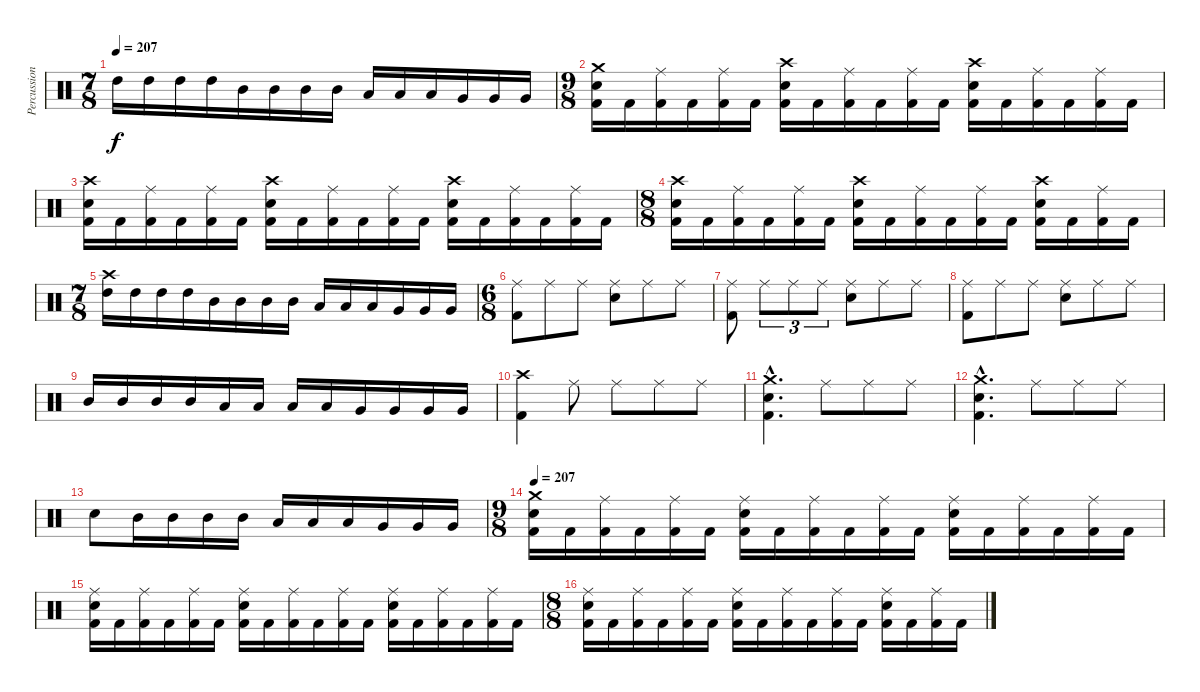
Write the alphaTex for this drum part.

\track ("Percussion" "Percussion") {instrument percussion}
\staff {score}
\articulation defaults
\ts (7 8)
\tempo 207
\clef neutral
\ks c "High Tom (hit)".16{dy f} "High Tom (hit)".16 "High Tom (hit)".16 "High Tom (hit)".16 "Mid Tom (hit)".16 "Mid Tom (hit)".16 "Mid Tom (hit)".16 "Mid Tom (hit)".16 "Low Tom (hit)".16 "Low Tom (hit)".16 "Low Tom (hit)".16 "Very Low Tom (hit)".16 "Very Low Tom (hit)".16 "Very Low Tom (hit)".16
|
\ts (9 8)
("Crash medium (hit)" "Electric Snare (hit)" "Kick (hit) 2").16 "Kick (hit) 2".16 ("Ride (middle)" "Kick (hit) 2").16 "Kick (hit) 2".16 ("Ride (middle)" "Kick (hit) 2").16 "Kick (hit) 2".16 ("Crash high (hit)" "Electric Snare (hit)" "Kick (hit) 2").16 "Kick (hit) 2".16 ("Ride (middle)" "Kick (hit) 2").16 "Kick (hit) 2".16 ("Ride (middle)" "Kick (hit) 2").16 "Kick (hit) 2".16 ("Crash high (hit)" "Electric Snare (hit)" "Kick (hit) 2").16 "Kick (hit) 2".16 ("Ride (middle)" "Kick (hit) 2").16 "Kick (hit) 2".16 ("Ride (middle)" "Kick (hit) 2").16 "Kick (hit) 2".16 |
("Crash high (hit)" "Electric Snare (hit)" "Kick (hit) 2").16 "Kick (hit) 2".16 ("Ride (middle)" "Kick (hit) 2").16 "Kick (hit) 2".16 ("Ride (middle)" "Kick (hit) 2").16 "Kick (hit) 2".16 ("Crash high (hit)" "Electric Snare (hit)" "Kick (hit) 2").16 "Kick (hit) 2".16 ("Ride (middle)" "Kick (hit) 2").16 "Kick (hit) 2".16 ("Ride (middle)" "Kick (hit) 2").16 "Kick (hit) 2".16 ("Crash high (hit)" "Electric Snare (hit)" "Kick (hit) 2").16 "Kick (hit) 2".16 ("Ride (middle)" "Kick (hit) 2").16 "Kick (hit) 2".16 ("Ride (middle)" "Kick (hit) 2").16 "Kick (hit) 2".16 |
\ts (8 8)
("Crash high (hit)" "Electric Snare (hit)" "Kick (hit) 2").16 "Kick (hit) 2".16 ("Ride (middle)" "Kick (hit) 2").16 "Kick (hit) 2".16 ("Ride (middle)" "Kick (hit) 2").16 "Kick (hit) 2".16 ("Crash high (hit)" "Electric Snare (hit)" "Kick (hit) 2").16 "Kick (hit) 2".16 ("Ride (middle)" "Kick (hit) 2").16 "Kick (hit) 2".16 ("Ride (middle)" "Kick (hit) 2").16 "Kick (hit) 2".16 ("Crash high (hit)" "Electric Snare (hit)" "Kick (hit) 2").16 "Kick (hit) 2".16 ("Ride (middle)" "Kick (hit) 2").16 "Kick (hit) 2".16 |
\ts (7 8)
("Crash high (hit)" "High Tom (hit)").16 "High Tom (hit)".16 "High Tom (hit)".16 "High Tom (hit)".16 "Mid Tom (hit)".16 "Mid Tom (hit)".16 "Mid Tom (hit)".16 "Mid Tom (hit)".16 "Low Tom (hit)".16 "Low Tom (hit)".16 "Low Tom (hit)".16 "Very Low Tom (hit)".16 "Very Low Tom (hit)".16 "Very Low Tom (hit)".16 |
\ts (6 8)
("Ride (middle)" "Kick (hit) 2").8 "Ride (middle)".8 "Ride (middle)".8 ("Ride (middle)" "Electric Snare (hit)").8 "Ride (middle)".8 "Ride (middle)".8 |
("Ride (middle)" "Kick (hit) 2").8 "Ride (middle)".8{tu (3 2)} "Ride (middle)".8{tu (3 2)} "Ride (middle)".8{tu (3 2)} ("Ride (middle)" "Electric Snare (hit)").8 "Ride (middle)".8 "Ride (middle)".8 |
("Ride (middle)" "Kick (hit) 2").8 "Ride (middle)".8 "Ride (middle)".8 ("Ride (middle)" "Electric Snare (hit)").8 "Ride (middle)".8 "Ride (middle)".8 |
"Mid Tom (hit)".16 "Mid Tom (hit)".16 "Mid Tom (hit)".16 "Mid Tom (hit)".16 "Low Tom (hit)".16 "Low Tom (hit)".16 "Low Tom (hit)".16 "Low Tom (hit)".16 "Very Low Tom (hit)".16 "Very Low Tom (hit)".16 "Very Low Tom (hit)".16 "Very Low Tom (hit)".16 |
("Crash high (hit)" "Kick (hit) 2").4 "Ride (middle)".8 "Ride (middle)".8 "Ride (middle)".8 "Ride (middle)".8 |
("Crash medium (hit)"{hac} "Electric Snare (hit)"{hac} "Kick (hit) 2"{hac}).4{d} "Ride (middle)".8 "Ride (middle)".8 "Ride (middle)".8 |
("Crash medium (hit)"{hac} "Electric Snare (hit)"{hac} "Kick (hit) 2"{hac}).4{d} "Ride (middle)".8 "Ride (middle)".8 "Ride (middle)".8 |
"Electric Snare (hit)".8 "Mid Tom (hit)".16 "Mid Tom (hit)".16 "Mid Tom (hit)".16 "Mid Tom (hit)".16 "Low Tom (hit)".16 "Low Tom (hit)".16 "Low Tom (hit)".16 "Very Low Tom (hit)".16 "Very Low Tom (hit)".16 "Very Low Tom (hit)".16 |
\ts (9 8)
\tempo 207
("Crash medium (hit)" "Electric Snare (hit)" "Kick (hit) 2").16 "Kick (hit) 2".16 ("Ride (middle)" "Kick (hit) 2").16 "Kick (hit) 2".16 ("Ride (middle)" "Kick (hit) 2").16 "Kick (hit) 2".16 ("Ride (middle)" "Electric Snare (hit)" "Kick (hit) 2").16 "Kick (hit) 2".16 ("Ride (middle)" "Kick (hit) 2").16 "Kick (hit) 2".16 ("Ride (middle)" "Kick (hit) 2").16 "Kick (hit) 2".16 ("Ride (middle)" "Electric Snare (hit)" "Kick (hit) 2").16 "Kick (hit) 2".16 ("Ride (middle)" "Kick (hit) 2").16 "Kick (hit) 2".16 ("Ride (middle)" "Kick (hit) 2").16 "Kick (hit) 2".16 |
("Ride (middle)" "Electric Snare (hit)" "Kick (hit) 2").16 "Kick (hit) 2".16 ("Ride (middle)" "Kick (hit) 2").16 "Kick (hit) 2".16 ("Ride (middle)" "Kick (hit) 2").16 "Kick (hit) 2".16 ("Ride (middle)" "Electric Snare (hit)" "Kick (hit) 2").16 "Kick (hit) 2".16 ("Ride (middle)" "Kick (hit) 2").16 "Kick (hit) 2".16 ("Ride (middle)" "Kick (hit) 2").16 "Kick (hit) 2".16 ("Ride (middle)" "Electric Snare (hit)" "Kick (hit) 2").16 "Kick (hit) 2".16 ("Ride (middle)" "Kick (hit) 2").16 "Kick (hit) 2".16 ("Ride (middle)" "Kick (hit) 2").16 "Kick (hit) 2".16 |
\ts (8 8)
("Ride (middle)" "Electric Snare (hit)" "Kick (hit) 2").16 "Kick (hit) 2".16 ("Ride (middle)" "Kick (hit) 2").16 "Kick (hit) 2".16 ("Ride (middle)" "Kick (hit) 2").16 "Kick (hit) 2".16 ("Ride (middle)" "Electric Snare (hit)" "Kick (hit) 2").16 "Kick (hit) 2".16 ("Ride (middle)" "Kick (hit) 2").16 "Kick (hit) 2".16 ("Ride (middle)" "Kick (hit) 2").16 "Kick (hit) 2".16 ("Ride (middle)" "Electric Snare (hit)" "Kick (hit) 2").16 "Kick (hit) 2".16 ("Ride (middle)" "Kick (hit) 2").16 "Kick (hit) 2".16
